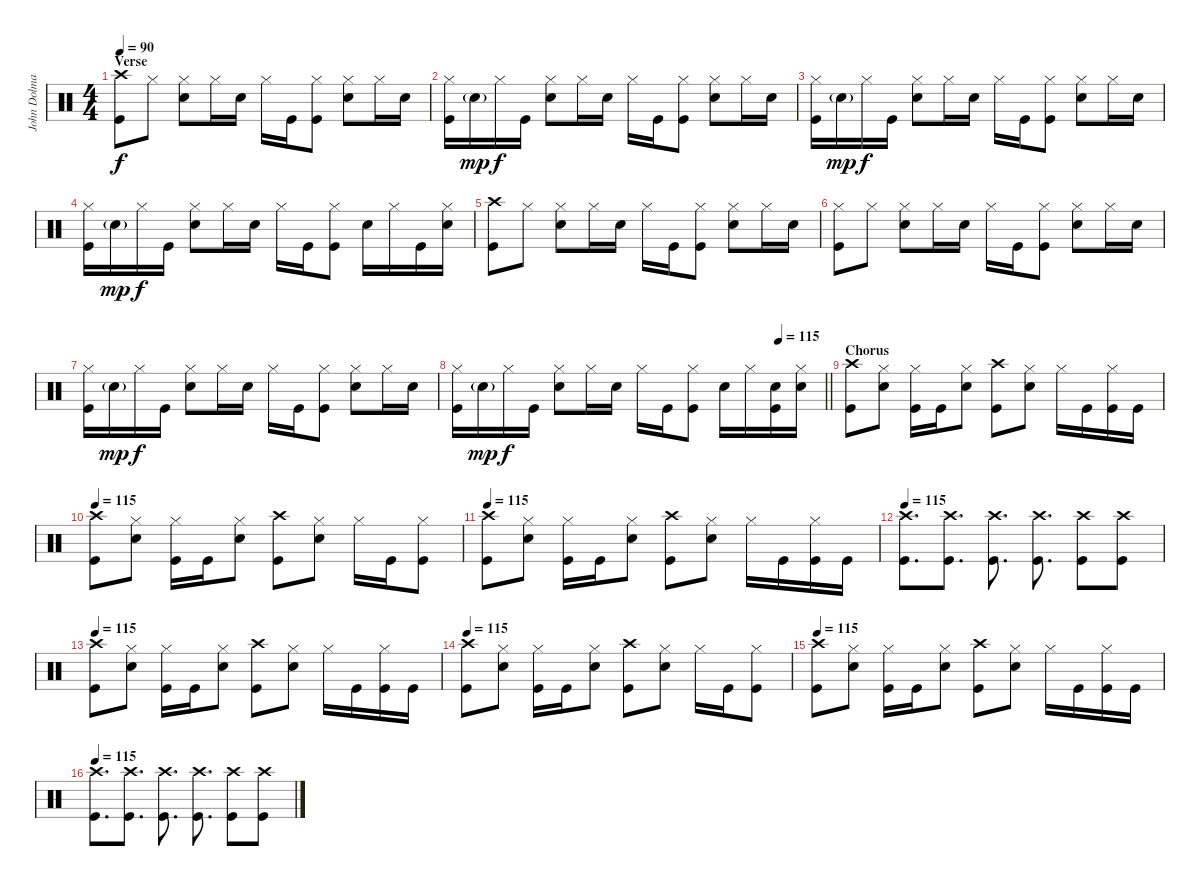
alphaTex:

\track ("John Dolmayan " "John Dolma") {instrument percussion}
\staff {score}
\articulation defaults
\ts (4 4)
\section ("" "Verse")
\tempo 90
\clef neutral
\ks c
("Crash high (hit)" "Kick (hit)").8{dy f} "Hi-Hat (closed)".8 ("Hi-Hat (closed)" "Snare (hit) 2").8 "Hi-Hat (closed)".16 "Snare (hit) 2".16 "Hi-Hat (closed)".16 "Kick (hit)".16 ("Hi-Hat (closed)" "Kick (hit)").8 ("Hi-Hat (closed)" "Snare (hit) 2").8 "Hi-Hat (closed)".16 "Snare (hit) 2".16 |
("Hi-Hat (closed)" "Kick (hit)").16 "Snare (hit) 2"{g}.16{dy mp} "Hi-Hat (closed)".16{dy f} "Kick (hit)".16 ("Hi-Hat (closed)" "Snare (hit) 2").8 "Hi-Hat (closed)".16 "Snare (hit) 2".16 "Hi-Hat (closed)".16 "Kick (hit)".16 ("Hi-Hat (closed)" "Kick (hit)").8 ("Hi-Hat (closed)" "Snare (hit) 2").8 "Hi-Hat (closed)".16 "Snare (hit) 2".16 |
("Hi-Hat (closed)" "Kick (hit)").16 "Snare (hit) 2"{g}.16{dy mp} "Hi-Hat (closed)".16{dy f} "Kick (hit)".16 ("Hi-Hat (closed)" "Snare (hit) 2").8 "Hi-Hat (closed)".16 "Snare (hit) 2".16 "Hi-Hat (closed)".16 "Kick (hit)".16 ("Hi-Hat (closed)" "Kick (hit)").8 ("Hi-Hat (closed)" "Snare (hit) 2").8 "Hi-Hat (closed)".16 "Snare (hit) 2".16 |
("Hi-Hat (closed)" "Kick (hit)").16 "Snare (hit) 2"{g}.16{dy mp} "Hi-Hat (closed)".16{dy f} "Kick (hit)".16 ("Hi-Hat (closed)" "Snare (hit) 2").8 "Hi-Hat (closed)".16 "Snare (hit) 2".16 "Hi-Hat (closed)".16 "Kick (hit)".16 ("Hi-Hat (closed)" "Kick (hit)").8 "Snare (hit) 2".16 "Hi-Hat (closed)".16 "Kick (hit)".16 ("Hi-Hat (closed)" "Snare (hit) 2").16 |
("Crash high (hit)" "Kick (hit)").8 "Hi-Hat (closed)".8 ("Hi-Hat (closed)" "Snare (hit) 2").8 "Hi-Hat (closed)".16 "Snare (hit) 2".16 "Hi-Hat (closed)".16 "Kick (hit)".16 ("Hi-Hat (closed)" "Kick (hit)").8 ("Hi-Hat (closed)" "Snare (hit) 2").8 "Hi-Hat (closed)".16 "Snare (hit) 2".16 |
("Hi-Hat (closed)" "Kick (hit)").8 "Hi-Hat (closed)".8 ("Hi-Hat (closed)" "Snare (hit) 2").8 "Hi-Hat (closed)".16 "Snare (hit) 2".16 "Hi-Hat (closed)".16 "Kick (hit)".16 ("Hi-Hat (closed)" "Kick (hit)").8 ("Hi-Hat (closed)" "Snare (hit) 2").8 "Hi-Hat (closed)".16 "Snare (hit) 2".16 |
("Hi-Hat (closed)" "Kick (hit)").16 "Snare (hit) 2"{g}.16{dy mp} "Hi-Hat (closed)".16{dy f} "Kick (hit)".16 ("Hi-Hat (closed)" "Snare (hit) 2").8 "Hi-Hat (closed)".16 "Snare (hit) 2".16 "Hi-Hat (closed)".16 "Kick (hit)".16 ("Hi-Hat (closed)" "Kick (hit)").8 ("Hi-Hat (closed)" "Snare (hit) 2").8 "Hi-Hat (closed)".16 "Snare (hit) 2".16 |
\tempo (115 0.875)
\barLineRight lightlight
("Hi-Hat (closed)" "Kick (hit)").16 "Snare (hit) 2"{g}.16{dy mp} "Hi-Hat (closed)".16{dy f} "Kick (hit)".16 ("Hi-Hat (closed)" "Snare (hit) 2").8 "Hi-Hat (closed)".16 "Snare (hit) 2".16 "Hi-Hat (closed)".16 "Kick (hit)".16 ("Hi-Hat (closed)" "Kick (hit)").8 "Snare (hit) 2".16 "Hi-Hat (closed)".16 ("Snare (hit) 2" "Kick (hit)").16 ("Hi-Hat (closed)" "Snare (hit) 2").16 |
\section ("" "Chorus")
("Crash high (hit)" "Kick (hit)").8 ("Hi-Hat (closed)" "Snare (hit) 2").8 ("Hi-Hat (closed)" "Kick (hit)").16 "Kick (hit)".16 ("Hi-Hat (closed)" "Snare (hit) 2").8 ("Crash high (hit)" "Kick (hit)").8 ("Hi-Hat (closed)" "Snare (hit) 2").8 "Hi-Hat (closed)".16 "Kick (hit)".16 ("Hi-Hat (closed)" "Kick (hit)").16 "Kick (hit)".16 |
\tempo 115
("Crash high (hit)" "Kick (hit)").8 ("Hi-Hat (closed)" "Snare (hit) 2").8 ("Hi-Hat (closed)" "Kick (hit)").16 "Kick (hit)".16 ("Hi-Hat (closed)" "Snare (hit) 2").8 ("Crash high (hit)" "Kick (hit)").8 ("Hi-Hat (closed)" "Snare (hit) 2").8 "Hi-Hat (closed)".16 "Kick (hit)".16 ("Hi-Hat (closed)" "Kick (hit)").8 |
\tempo 115
("Crash high (hit)" "Kick (hit)").8 ("Hi-Hat (closed)" "Snare (hit) 2").8 ("Hi-Hat (closed)" "Kick (hit)").16 "Kick (hit)".16 ("Hi-Hat (closed)" "Snare (hit) 2").8 ("Crash high (hit)" "Kick (hit)").8 ("Hi-Hat (closed)" "Snare (hit) 2").8 "Hi-Hat (closed)".16 "Kick (hit)".16 ("Hi-Hat (closed)" "Kick (hit)").16 "Kick (hit)".16 |
\tempo 115
("Crash high (hit)" "Kick (hit)").8{d} ("Crash high (hit)" "Kick (hit)").8{d} ("Crash high (hit)" "Kick (hit)").8{d} ("Crash high (hit)" "Kick (hit)").8{d} ("Crash high (hit)" "Kick (hit)").8 ("Crash high (hit)" "Kick (hit)").8 |
\tempo 115
("Crash high (hit)" "Kick (hit)").8 ("Hi-Hat (closed)" "Snare (hit) 2").8 ("Hi-Hat (closed)" "Kick (hit)").16 "Kick (hit)".16 ("Hi-Hat (closed)" "Snare (hit) 2").8 ("Crash high (hit)" "Kick (hit)").8 ("Hi-Hat (closed)" "Snare (hit) 2").8 "Hi-Hat (closed)".16 "Kick (hit)".16 ("Hi-Hat (closed)" "Kick (hit)").16 "Kick (hit)".16 |
\tempo 115
("Crash high (hit)" "Kick (hit)").8 ("Hi-Hat (closed)" "Snare (hit) 2").8 ("Hi-Hat (closed)" "Kick (hit)").16 "Kick (hit)".16 ("Hi-Hat (closed)" "Snare (hit) 2").8 ("Crash high (hit)" "Kick (hit)").8 ("Hi-Hat (closed)" "Snare (hit) 2").8 "Hi-Hat (closed)".16 "Kick (hit)".16 ("Hi-Hat (closed)" "Kick (hit)").8 |
\tempo 115
("Crash high (hit)" "Kick (hit)").8 ("Hi-Hat (closed)" "Snare (hit) 2").8 ("Hi-Hat (closed)" "Kick (hit)").16 "Kick (hit)".16 ("Hi-Hat (closed)" "Snare (hit) 2").8 ("Crash high (hit)" "Kick (hit)").8 ("Hi-Hat (closed)" "Snare (hit) 2").8 "Hi-Hat (closed)".16 "Kick (hit)".16 ("Hi-Hat (closed)" "Kick (hit)").16 "Kick (hit)".16 |
\tempo 115
("Crash high (hit)" "Kick (hit)").8{d} ("Crash high (hit)" "Kick (hit)").8{d} ("Crash high (hit)" "Kick (hit)").8{d} ("Crash high (hit)" "Kick (hit)").8{d} ("Crash high (hit)" "Kick (hit)").8 ("Crash high (hit)" "Kick (hit)").8
